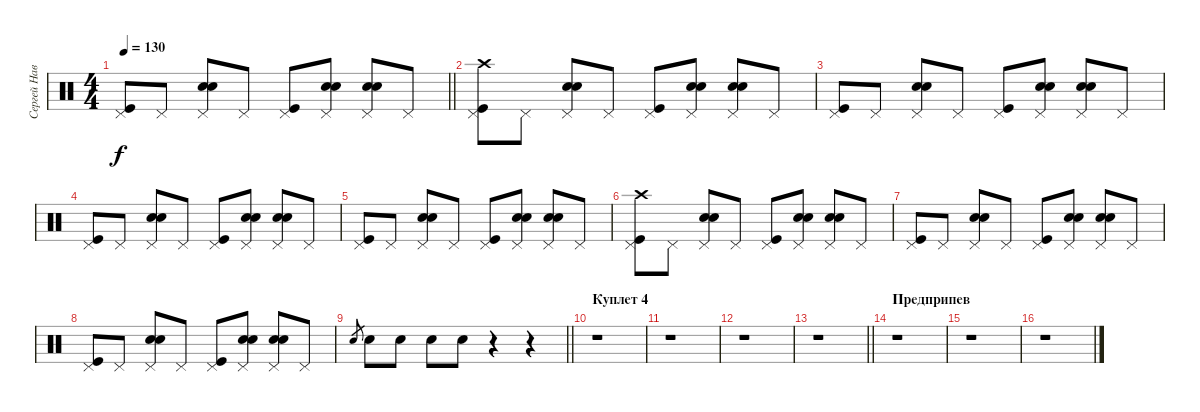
\track ("Сергей Наветный (ударные)" "Сергей Нав") {instrument percussion}
\staff {score}
\articulation defaults
\ts (4 4)
\tempo 130
\clef neutral
\barLineRight lightlight
\ks c
("Kick (hit)" "Pedal Hi-Hat (hit)").8{dy f} "Pedal Hi-Hat (hit)".8 ("Hand Clap (hit)" "Snare (hit) 2" "Pedal Hi-Hat (hit)").8 "Pedal Hi-Hat (hit)".8 ("Kick (hit)" "Pedal Hi-Hat (hit)").8 ("Hand Clap (hit)" "Snare (hit) 2" "Pedal Hi-Hat (hit)").8 ("Hand Clap (hit)" "Snare (hit) 2" "Pedal Hi-Hat (hit)").8 "Pedal Hi-Hat (hit)".8 |
("Crash high (hit)" "Kick (hit)" "Pedal Hi-Hat (hit)").8 "Pedal Hi-Hat (hit)".8 ("Hand Clap (hit)" "Snare (hit) 2" "Pedal Hi-Hat (hit)").8 "Pedal Hi-Hat (hit)".8 ("Kick (hit)" "Pedal Hi-Hat (hit)").8 ("Hand Clap (hit)" "Snare (hit) 2" "Pedal Hi-Hat (hit)").8 ("Hand Clap (hit)" "Snare (hit) 2" "Pedal Hi-Hat (hit)").8 "Pedal Hi-Hat (hit)".8 |
("Kick (hit)" "Pedal Hi-Hat (hit)").8 "Pedal Hi-Hat (hit)".8 ("Hand Clap (hit)" "Snare (hit) 2" "Pedal Hi-Hat (hit)").8 "Pedal Hi-Hat (hit)".8 ("Kick (hit)" "Pedal Hi-Hat (hit)").8 ("Hand Clap (hit)" "Snare (hit) 2" "Pedal Hi-Hat (hit)").8 ("Hand Clap (hit)" "Snare (hit) 2" "Pedal Hi-Hat (hit)").8 "Pedal Hi-Hat (hit)".8 |
("Kick (hit)" "Pedal Hi-Hat (hit)").8 "Pedal Hi-Hat (hit)".8 ("Hand Clap (hit)" "Snare (hit) 2" "Pedal Hi-Hat (hit)").8 "Pedal Hi-Hat (hit)".8 ("Kick (hit)" "Pedal Hi-Hat (hit)").8 ("Hand Clap (hit)" "Snare (hit) 2" "Pedal Hi-Hat (hit)").8 ("Hand Clap (hit)" "Snare (hit) 2" "Pedal Hi-Hat (hit)").8 "Pedal Hi-Hat (hit)".8 |
("Kick (hit)" "Pedal Hi-Hat (hit)").8 "Pedal Hi-Hat (hit)".8 ("Hand Clap (hit)" "Snare (hit) 2" "Pedal Hi-Hat (hit)").8 "Pedal Hi-Hat (hit)".8 ("Kick (hit)" "Pedal Hi-Hat (hit)").8 ("Hand Clap (hit)" "Snare (hit) 2" "Pedal Hi-Hat (hit)").8 ("Hand Clap (hit)" "Snare (hit) 2" "Pedal Hi-Hat (hit)").8 "Pedal Hi-Hat (hit)".8 |
("Crash high (hit)" "Kick (hit)" "Pedal Hi-Hat (hit)").8 "Pedal Hi-Hat (hit)".8 ("Hand Clap (hit)" "Snare (hit) 2" "Pedal Hi-Hat (hit)").8 "Pedal Hi-Hat (hit)".8 ("Kick (hit)" "Pedal Hi-Hat (hit)").8 ("Hand Clap (hit)" "Snare (hit) 2" "Pedal Hi-Hat (hit)").8 ("Hand Clap (hit)" "Snare (hit) 2" "Pedal Hi-Hat (hit)").8 "Pedal Hi-Hat (hit)".8 |
("Kick (hit)" "Pedal Hi-Hat (hit)").8 "Pedal Hi-Hat (hit)".8 ("Hand Clap (hit)" "Snare (hit) 2" "Pedal Hi-Hat (hit)").8 "Pedal Hi-Hat (hit)".8 ("Kick (hit)" "Pedal Hi-Hat (hit)").8 ("Hand Clap (hit)" "Snare (hit) 2" "Pedal Hi-Hat (hit)").8 ("Hand Clap (hit)" "Snare (hit) 2" "Pedal Hi-Hat (hit)").8 "Pedal Hi-Hat (hit)".8 |
("Kick (hit)" "Pedal Hi-Hat (hit)").8 "Pedal Hi-Hat (hit)".8 ("Hand Clap (hit)" "Snare (hit) 2" "Pedal Hi-Hat (hit)").8 "Pedal Hi-Hat (hit)".8 ("Kick (hit)" "Pedal Hi-Hat (hit)").8 ("Hand Clap (hit)" "Snare (hit) 2" "Pedal Hi-Hat (hit)").8 ("Hand Clap (hit)" "Snare (hit) 2" "Pedal Hi-Hat (hit)").8 "Pedal Hi-Hat (hit)".8 |
\barLineRight lightlight "Snare (hit) 2".8{gr} "Snare (hit) 2".8 "Snare (hit) 2".8 "Snare (hit) 2".8 "Snare (hit) 2".8
r.4 r.4 |
\section ("" "Куплет 4")
r.1 |
r.1 |
r.1 |
\barLineRight lightlight
r.1 |
\section ("" "Предприпев")
r.1 |
r.1 |
r.1
